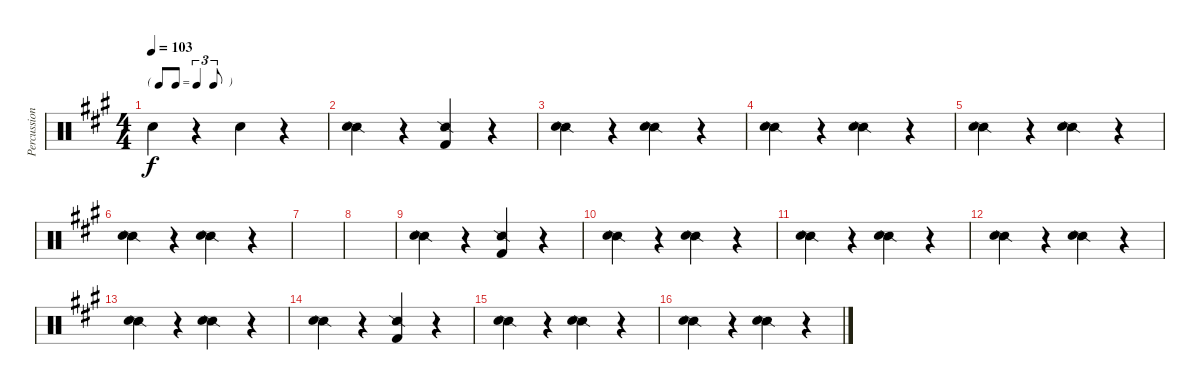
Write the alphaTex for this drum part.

\track ("Percussions" "Percussion") {instrument percussion}
\staff {score}
\articulation defaults
\ts (4 4)
\tf triplet8th
\tempo 103
\clef neutral
\ks a "Snare (hit) 2".4{dy f}
r.4 "Snare (hit) 2".4 r.4 |
("Snare (side stick) 2" "Snare (hit) 2").4 r.4 ("Snare (side stick) 2" "Kick (hit) 2").4 r.4 |
("Snare (side stick) 2" "Snare (hit) 2").4 r.4 ("Snare (side stick) 2" "Snare (hit) 2").4 r.4 |
("Snare (side stick) 2" "Snare (hit) 2").4 r.4 ("Snare (side stick) 2" "Snare (hit) 2").4 r.4 |
("Snare (side stick) 2" "Snare (hit) 2").4 r.4 ("Snare (side stick) 2" "Snare (hit) 2").4 r.4 |
("Snare (side stick) 2" "Snare (hit) 2").4 r.4 ("Snare (side stick) 2" "Snare (hit) 2").4 r.4 |
|
|
("Snare (side stick) 2" "Snare (hit) 2").4 r.4 ("Snare (side stick) 2" "Kick (hit) 2").4 r.4 |
("Snare (side stick) 2" "Snare (hit) 2").4 r.4 ("Snare (side stick) 2" "Snare (hit) 2").4 r.4 |
("Snare (side stick) 2" "Snare (hit) 2").4 r.4 ("Snare (side stick) 2" "Snare (hit) 2").4 r.4 |
("Snare (side stick) 2" "Snare (hit) 2").4 r.4 ("Snare (side stick) 2" "Snare (hit) 2").4 r.4 |
("Snare (side stick) 2" "Snare (hit) 2").4 r.4 ("Snare (side stick) 2" "Snare (hit) 2").4 r.4 |
("Snare (side stick) 2" "Snare (hit) 2").4 r.4 ("Snare (side stick) 2" "Kick (hit) 2").4 r.4 |
("Snare (side stick) 2" "Snare (hit) 2").4 r.4 ("Snare (side stick) 2" "Snare (hit) 2").4 r.4 |
("Snare (side stick) 2" "Snare (hit) 2").4 r.4 ("Snare (side stick) 2" "Snare (hit) 2").4 r.4
